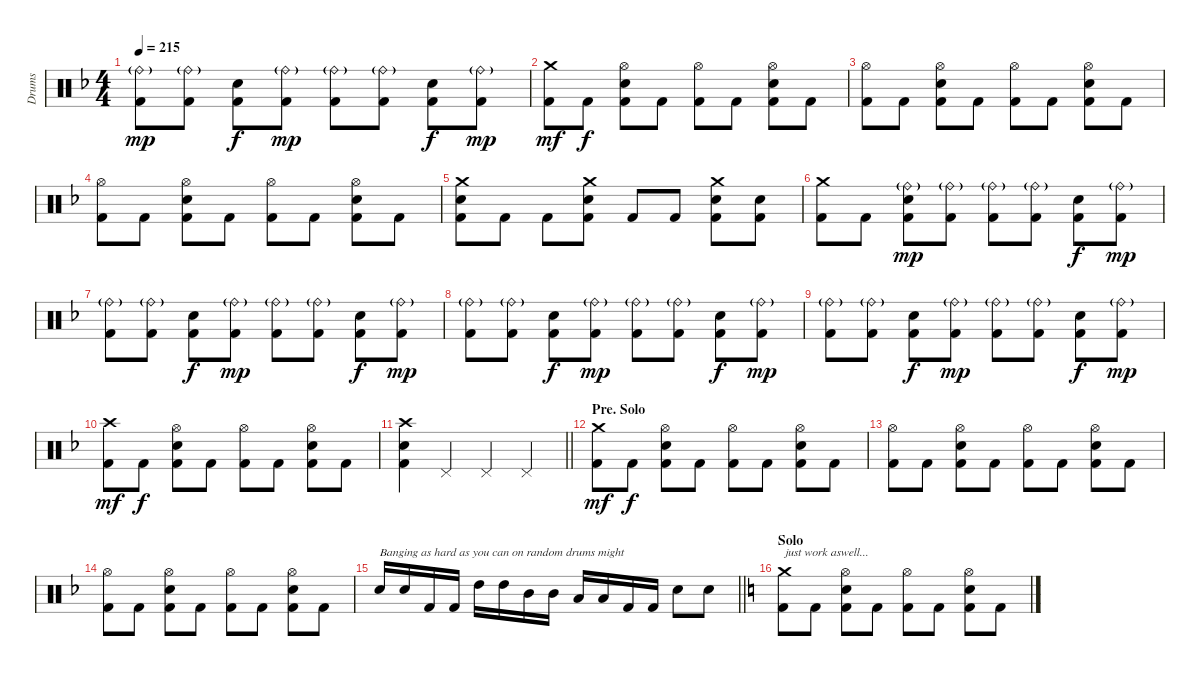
\track ("Drums" "Drums") {instrument percussion}
\staff {score}
\articulation defaults
\ts (4 4)
\tempo 215
\clef neutral
\ks f
("Ride (bell)"{g} "Kick (hit) 2").8{dy mp} ("Ride (bell)"{g} "Kick (hit) 2").8 ("Snare (hit) 2" "Kick (hit) 2").8{dy f} ("Ride (bell)"{g} "Kick (hit) 2").8{dy mp} ("Ride (bell)"{g} "Kick (hit) 2").8 ("Ride (bell)"{g} "Kick (hit) 2").8 ("Snare (hit) 2" "Kick (hit) 2").8{dy f} ("Ride (bell)"{g} "Kick (hit) 2").8{dy mp} |
("Crash medium (hit)" "Kick (hit) 2").8{dy mf} "Kick (hit) 2".8{dy f} ("Hi-Hat (open)" "Snare (hit) 2" "Kick (hit) 2").8 "Kick (hit) 2".8 ("Hi-Hat (open)" "Kick (hit) 2").8 "Kick (hit) 2".8 ("Hi-Hat (open)" "Snare (hit) 2" "Kick (hit) 2").8 "Kick (hit) 2".8 |
("Hi-Hat (open)" "Kick (hit) 2").8 "Kick (hit) 2".8 ("Hi-Hat (open)" "Snare (hit) 2" "Kick (hit) 2").8 "Kick (hit) 2".8 ("Hi-Hat (open)" "Kick (hit) 2").8 "Kick (hit) 2".8 ("Hi-Hat (open)" "Snare (hit) 2" "Kick (hit) 2").8 "Kick (hit) 2".8 |
("Hi-Hat (open)" "Kick (hit) 2").8 "Kick (hit) 2".8 ("Hi-Hat (open)" "Snare (hit) 2" "Kick (hit) 2").8 "Kick (hit) 2".8 ("Hi-Hat (open)" "Kick (hit) 2").8 "Kick (hit) 2".8 ("Hi-Hat (open)" "Snare (hit) 2" "Kick (hit) 2").8 "Kick (hit) 2".8 |
("Crash medium (hit)" "Snare (hit) 2" "Kick (hit) 2").8 "Kick (hit) 2".8 "Kick (hit) 2".8 ("Crash medium (hit)" "Snare (hit) 2" "Kick (hit) 2").8 "Kick (hit) 2".8 "Kick (hit) 2".8 ("Crash medium (hit)" "Snare (hit) 2" "Kick (hit) 2").8 ("Snare (hit) 2" "Kick (hit) 2").8 |
("Crash medium (hit)" "Kick (hit) 2").8 "Kick (hit) 2".8 ("Ride (bell)"{g} "Snare (hit) 2" "Kick (hit) 2").8{dy mp} ("Ride (bell)"{g} "Kick (hit) 2").8 ("Ride (bell)"{g} "Kick (hit) 2").8 ("Ride (bell)"{g} "Kick (hit) 2").8 ("Snare (hit) 2" "Kick (hit) 2").8{dy f} ("Ride (bell)"{g} "Kick (hit) 2").8{dy mp} |
("Ride (bell)"{g} "Kick (hit) 2").8 ("Ride (bell)"{g} "Kick (hit) 2").8 ("Snare (hit) 2" "Kick (hit) 2").8{dy f} ("Ride (bell)"{g} "Kick (hit) 2").8{dy mp} ("Ride (bell)"{g} "Kick (hit) 2").8 ("Ride (bell)"{g} "Kick (hit) 2").8 ("Snare (hit) 2" "Kick (hit) 2").8{dy f} ("Ride (bell)"{g} "Kick (hit) 2").8{dy mp} |
("Ride (bell)"{g} "Kick (hit) 2").8 ("Ride (bell)"{g} "Kick (hit) 2").8 ("Snare (hit) 2" "Kick (hit) 2").8{dy f} ("Ride (bell)"{g} "Kick (hit) 2").8{dy mp} ("Ride (bell)"{g} "Kick (hit) 2").8 ("Ride (bell)"{g} "Kick (hit) 2").8 ("Snare (hit) 2" "Kick (hit) 2").8{dy f} ("Ride (bell)"{g} "Kick (hit) 2").8{dy mp} |
("Ride (bell)"{g} "Kick (hit) 2").8 ("Ride (bell)"{g} "Kick (hit) 2").8 ("Snare (hit) 2" "Kick (hit) 2").8{dy f} ("Ride (bell)"{g} "Kick (hit) 2").8{dy mp} ("Ride (bell)"{g} "Kick (hit) 2").8 ("Ride (bell)"{g} "Kick (hit) 2").8 ("Snare (hit) 2" "Kick (hit) 2").8{dy f} ("Ride (bell)"{g} "Kick (hit) 2").8{dy mp} |
("Crash high (hit)" "Kick (hit) 2").8{dy mf} "Kick (hit) 2".8{dy f} ("Hi-Hat (open)" "Snare (hit) 2" "Kick (hit) 2").8 "Kick (hit) 2".8 ("Hi-Hat (open)" "Kick (hit) 2").8 "Kick (hit) 2".8 ("Hi-Hat (open)" "Snare (hit) 2" "Kick (hit) 2").8 "Kick (hit) 2".8 |
\barLineRight lightlight
("Crash high (hit)" "Snare (hit) 2" "Kick (hit) 2").4 "Pedal Hi-Hat (hit)".4 "Pedal Hi-Hat (hit)".4 "Pedal Hi-Hat (hit)".4 |
\section ("" "Pre. Solo")
("Crash medium (hit)" "Kick (hit) 2").8{dy mf} "Kick (hit) 2".8{dy f} ("Hi-Hat (open)" "Snare (hit) 2" "Kick (hit) 2").8 "Kick (hit) 2".8 ("Hi-Hat (open)" "Kick (hit) 2").8 "Kick (hit) 2".8 ("Hi-Hat (open)" "Snare (hit) 2" "Kick (hit) 2").8 "Kick (hit) 2".8 |
("Hi-Hat (open)" "Kick (hit) 2").8 "Kick (hit) 2".8 ("Hi-Hat (open)" "Snare (hit) 2" "Kick (hit) 2").8 "Kick (hit) 2".8 ("Hi-Hat (open)" "Kick (hit) 2").8 "Kick (hit) 2".8 ("Hi-Hat (open)" "Snare (hit) 2" "Kick (hit) 2").8 "Kick (hit) 2".8 |
("Hi-Hat (open)" "Kick (hit) 2").8 "Kick (hit) 2".8 ("Hi-Hat (open)" "Snare (hit) 2" "Kick (hit) 2").8 "Kick (hit) 2".8 ("Hi-Hat (open)" "Kick (hit) 2").8 "Kick (hit) 2".8 ("Hi-Hat (open)" "Snare (hit) 2" "Kick (hit) 2").8 "Kick (hit) 2".8 |
\barLineRight lightlight "Snare (hit) 2".16{txt "Banging as hard as you can on random drums might "} "Snare (hit) 2".16 "Kick (hit) 2".16 "Kick (hit) 2".16 "High Tom (hit)".16 "High Tom (hit)".16 "Mid Tom (hit)".16 "Mid Tom (hit)".16 "Low Tom (hit)".16 "Low Tom (hit)".16 "Kick (hit) 2".16 "Kick (hit) 2".16 "Snare (hit) 2".8 "Snare (hit) 2".8
|
\section ("" "Solo")
\ks c
("Crash medium (hit)" "Kick (hit) 2").8{txt "just work aswell..."} "Kick (hit) 2".8 ("Hi-Hat (open)" "Snare (hit) 2" "Kick (hit) 2").8 "Kick (hit) 2".8 ("Hi-Hat (open)" "Kick (hit) 2").8 "Kick (hit) 2".8 ("Hi-Hat (open)" "Snare (hit) 2" "Kick (hit) 2").8 "Kick (hit) 2".8
